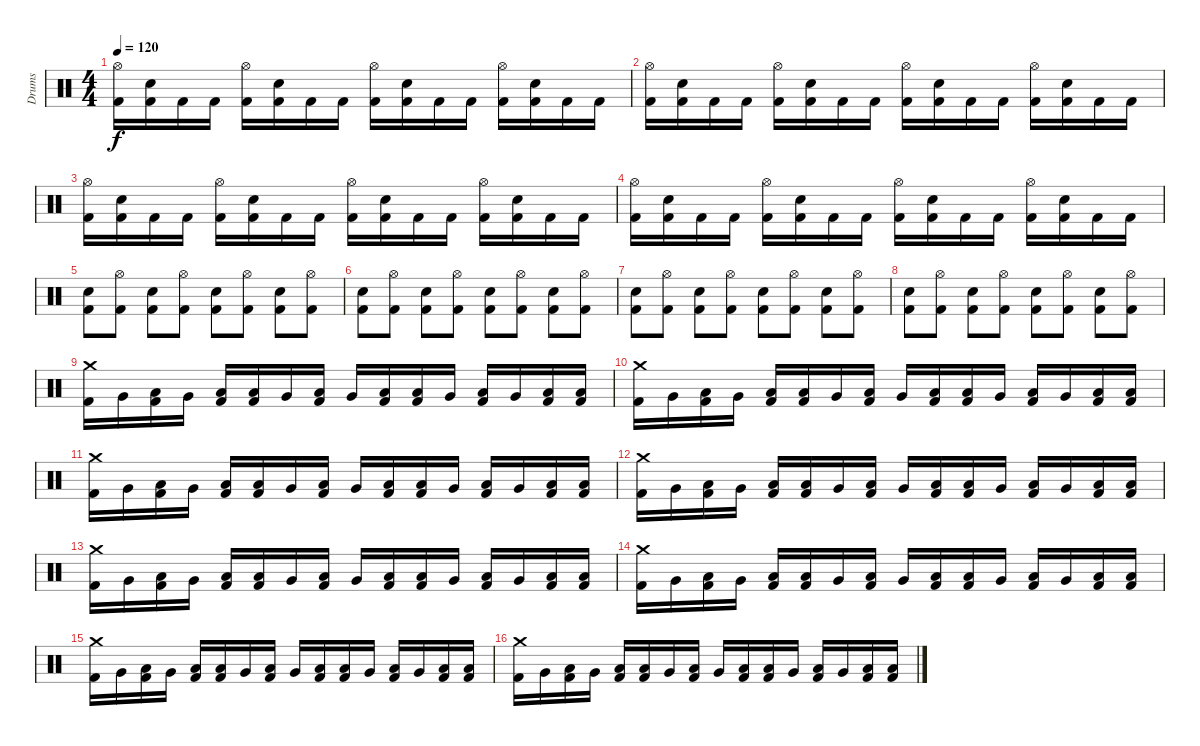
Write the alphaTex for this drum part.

\track ("Drums" "Drums") {instrument percussion}
\staff {score}
\articulation defaults
\ts (4 4)
\tempo 120
\clef neutral
\ks c
("Hi-Hat (open)" "Kick (hit) 2").16{dy f} ("Snare (hit) 2" "Kick (hit) 2").16 "Kick (hit) 2".16 "Kick (hit) 2".16 ("Hi-Hat (open)" "Kick (hit) 2").16 ("Snare (hit) 2" "Kick (hit) 2").16 "Kick (hit) 2".16 "Kick (hit) 2".16 ("Hi-Hat (open)" "Kick (hit) 2").16 ("Snare (hit) 2" "Kick (hit) 2").16 "Kick (hit) 2".16 "Kick (hit) 2".16 ("Hi-Hat (open)" "Kick (hit) 2").16 ("Snare (hit) 2" "Kick (hit) 2").16 "Kick (hit) 2".16 "Kick (hit) 2".16 |
("Hi-Hat (open)" "Kick (hit) 2").16 ("Snare (hit) 2" "Kick (hit) 2").16 "Kick (hit) 2".16 "Kick (hit) 2".16 ("Hi-Hat (open)" "Kick (hit) 2").16 ("Snare (hit) 2" "Kick (hit) 2").16 "Kick (hit) 2".16 "Kick (hit) 2".16 ("Hi-Hat (open)" "Kick (hit) 2").16 ("Snare (hit) 2" "Kick (hit) 2").16 "Kick (hit) 2".16 "Kick (hit) 2".16 ("Hi-Hat (open)" "Kick (hit) 2").16 ("Snare (hit) 2" "Kick (hit) 2").16 "Kick (hit) 2".16 "Kick (hit) 2".16 |
("Hi-Hat (open)" "Kick (hit) 2").16 ("Snare (hit) 2" "Kick (hit) 2").16 "Kick (hit) 2".16 "Kick (hit) 2".16 ("Hi-Hat (open)" "Kick (hit) 2").16 ("Snare (hit) 2" "Kick (hit) 2").16 "Kick (hit) 2".16 "Kick (hit) 2".16 ("Hi-Hat (open)" "Kick (hit) 2").16 ("Snare (hit) 2" "Kick (hit) 2").16 "Kick (hit) 2".16 "Kick (hit) 2".16 ("Hi-Hat (open)" "Kick (hit) 2").16 ("Snare (hit) 2" "Kick (hit) 2").16 "Kick (hit) 2".16 "Kick (hit) 2".16 |
("Hi-Hat (open)" "Kick (hit) 2").16 ("Snare (hit) 2" "Kick (hit) 2").16 "Kick (hit) 2".16 "Kick (hit) 2".16 ("Hi-Hat (open)" "Kick (hit) 2").16 ("Snare (hit) 2" "Kick (hit) 2").16 "Kick (hit) 2".16 "Kick (hit) 2".16 ("Hi-Hat (open)" "Kick (hit) 2").16 ("Snare (hit) 2" "Kick (hit) 2").16 "Kick (hit) 2".16 "Kick (hit) 2".16 ("Hi-Hat (open)" "Kick (hit) 2").16 ("Snare (hit) 2" "Kick (hit) 2").16 "Kick (hit) 2".16 "Kick (hit) 2".16 |
("Snare (hit) 2" "Kick (hit) 2").8 ("Hi-Hat (open)" "Kick (hit) 2").8 ("Snare (hit) 2" "Kick (hit) 2").8 ("Hi-Hat (open)" "Kick (hit) 2").8 ("Snare (hit) 2" "Kick (hit) 2").8 ("Hi-Hat (open)" "Kick (hit) 2").8 ("Snare (hit) 2" "Kick (hit) 2").8 ("Hi-Hat (open)" "Kick (hit) 2").8 |
("Snare (hit) 2" "Kick (hit) 2").8 ("Hi-Hat (open)" "Kick (hit) 2").8 ("Snare (hit) 2" "Kick (hit) 2").8 ("Hi-Hat (open)" "Kick (hit) 2").8 ("Snare (hit) 2" "Kick (hit) 2").8 ("Hi-Hat (open)" "Kick (hit) 2").8 ("Snare (hit) 2" "Kick (hit) 2").8 ("Hi-Hat (open)" "Kick (hit) 2").8 |
("Snare (hit) 2" "Kick (hit) 2").8 ("Hi-Hat (open)" "Kick (hit) 2").8 ("Snare (hit) 2" "Kick (hit) 2").8 ("Hi-Hat (open)" "Kick (hit) 2").8 ("Snare (hit) 2" "Kick (hit) 2").8 ("Hi-Hat (open)" "Kick (hit) 2").8 ("Snare (hit) 2" "Kick (hit) 2").8 ("Hi-Hat (open)" "Kick (hit) 2").8 |
("Snare (hit) 2" "Kick (hit) 2").8 ("Hi-Hat (open)" "Kick (hit) 2").8 ("Snare (hit) 2" "Kick (hit) 2").8 ("Hi-Hat (open)" "Kick (hit) 2").8 ("Snare (hit) 2" "Kick (hit) 2").8 ("Hi-Hat (open)" "Kick (hit) 2").8 ("Snare (hit) 2" "Kick (hit) 2").8 ("Hi-Hat (open)" "Kick (hit) 2").8 |
("Crash medium (hit)" "Kick (hit) 2").16 "Very Low Tom (hit)".16 ("Low Tom (hit)" "Kick (hit) 2").16 "Very Low Tom (hit)".16 ("Low Tom (hit)" "Kick (hit) 2").16 ("Low Tom (hit)" "Kick (hit) 2").16 "Very Low Tom (hit)".16 ("Low Tom (hit)" "Kick (hit) 2").16 "Very Low Tom (hit)".16 ("Low Tom (hit)" "Kick (hit) 2").16 ("Low Tom (hit)" "Kick (hit) 2").16 "Very Low Tom (hit)".16 ("Low Tom (hit)" "Kick (hit) 2").16 "Very Low Tom (hit)".16 ("Low Tom (hit)" "Kick (hit) 2").16 ("Low Tom (hit)" "Kick (hit) 2").16 |
("Crash medium (hit)" "Kick (hit) 2").16 "Very Low Tom (hit)".16 ("Low Tom (hit)" "Kick (hit) 2").16 "Very Low Tom (hit)".16 ("Low Tom (hit)" "Kick (hit) 2").16 ("Low Tom (hit)" "Kick (hit) 2").16 "Very Low Tom (hit)".16 ("Low Tom (hit)" "Kick (hit) 2").16 "Very Low Tom (hit)".16 ("Low Tom (hit)" "Kick (hit) 2").16 ("Low Tom (hit)" "Kick (hit) 2").16 "Very Low Tom (hit)".16 ("Low Tom (hit)" "Kick (hit) 2").16 "Very Low Tom (hit)".16 ("Low Tom (hit)" "Kick (hit) 2").16 ("Low Tom (hit)" "Kick (hit) 2").16 |
("Crash medium (hit)" "Kick (hit) 2").16 "Very Low Tom (hit)".16 ("Low Tom (hit)" "Kick (hit) 2").16 "Very Low Tom (hit)".16 ("Low Tom (hit)" "Kick (hit) 2").16 ("Low Tom (hit)" "Kick (hit) 2").16 "Very Low Tom (hit)".16 ("Low Tom (hit)" "Kick (hit) 2").16 "Very Low Tom (hit)".16 ("Low Tom (hit)" "Kick (hit) 2").16 ("Low Tom (hit)" "Kick (hit) 2").16 "Very Low Tom (hit)".16 ("Low Tom (hit)" "Kick (hit) 2").16 "Very Low Tom (hit)".16 ("Low Tom (hit)" "Kick (hit) 2").16 ("Low Tom (hit)" "Kick (hit) 2").16 |
("Crash medium (hit)" "Kick (hit) 2").16 "Very Low Tom (hit)".16 ("Low Tom (hit)" "Kick (hit) 2").16 "Very Low Tom (hit)".16 ("Low Tom (hit)" "Kick (hit) 2").16 ("Low Tom (hit)" "Kick (hit) 2").16 "Very Low Tom (hit)".16 ("Low Tom (hit)" "Kick (hit) 2").16 "Very Low Tom (hit)".16 ("Low Tom (hit)" "Kick (hit) 2").16 ("Low Tom (hit)" "Kick (hit) 2").16 "Very Low Tom (hit)".16 ("Low Tom (hit)" "Kick (hit) 2").16 "Very Low Tom (hit)".16 ("Low Tom (hit)" "Kick (hit) 2").16 ("Low Tom (hit)" "Kick (hit) 2").16 |
("Crash medium (hit)" "Kick (hit) 2").16 "Very Low Tom (hit)".16 ("Low Tom (hit)" "Kick (hit) 2").16 "Very Low Tom (hit)".16 ("Low Tom (hit)" "Kick (hit) 2").16 ("Low Tom (hit)" "Kick (hit) 2").16 "Very Low Tom (hit)".16 ("Low Tom (hit)" "Kick (hit) 2").16 "Very Low Tom (hit)".16 ("Low Tom (hit)" "Kick (hit) 2").16 ("Low Tom (hit)" "Kick (hit) 2").16 "Very Low Tom (hit)".16 ("Low Tom (hit)" "Kick (hit) 2").16 "Very Low Tom (hit)".16 ("Low Tom (hit)" "Kick (hit) 2").16 ("Low Tom (hit)" "Kick (hit) 2").16 |
("Crash medium (hit)" "Kick (hit) 2").16 "Very Low Tom (hit)".16 ("Low Tom (hit)" "Kick (hit) 2").16 "Very Low Tom (hit)".16 ("Low Tom (hit)" "Kick (hit) 2").16 ("Low Tom (hit)" "Kick (hit) 2").16 "Very Low Tom (hit)".16 ("Low Tom (hit)" "Kick (hit) 2").16 "Very Low Tom (hit)".16 ("Low Tom (hit)" "Kick (hit) 2").16 ("Low Tom (hit)" "Kick (hit) 2").16 "Very Low Tom (hit)".16 ("Low Tom (hit)" "Kick (hit) 2").16 "Very Low Tom (hit)".16 ("Low Tom (hit)" "Kick (hit) 2").16 ("Low Tom (hit)" "Kick (hit) 2").16 |
("Crash medium (hit)" "Kick (hit) 2").16 "Very Low Tom (hit)".16 ("Low Tom (hit)" "Kick (hit) 2").16 "Very Low Tom (hit)".16 ("Low Tom (hit)" "Kick (hit) 2").16 ("Low Tom (hit)" "Kick (hit) 2").16 "Very Low Tom (hit)".16 ("Low Tom (hit)" "Kick (hit) 2").16 "Very Low Tom (hit)".16 ("Low Tom (hit)" "Kick (hit) 2").16 ("Low Tom (hit)" "Kick (hit) 2").16 "Very Low Tom (hit)".16 ("Low Tom (hit)" "Kick (hit) 2").16 "Very Low Tom (hit)".16 ("Low Tom (hit)" "Kick (hit) 2").16 ("Low Tom (hit)" "Kick (hit) 2").16 |
("Crash medium (hit)" "Kick (hit) 2").16 "Very Low Tom (hit)".16 ("Low Tom (hit)" "Kick (hit) 2").16 "Very Low Tom (hit)".16 ("Low Tom (hit)" "Kick (hit) 2").16 ("Low Tom (hit)" "Kick (hit) 2").16 "Very Low Tom (hit)".16 ("Low Tom (hit)" "Kick (hit) 2").16 "Very Low Tom (hit)".16 ("Low Tom (hit)" "Kick (hit) 2").16 ("Low Tom (hit)" "Kick (hit) 2").16 "Very Low Tom (hit)".16 ("Low Tom (hit)" "Kick (hit) 2").16 "Very Low Tom (hit)".16 ("Low Tom (hit)" "Kick (hit) 2").16 ("Low Tom (hit)" "Kick (hit) 2").16
